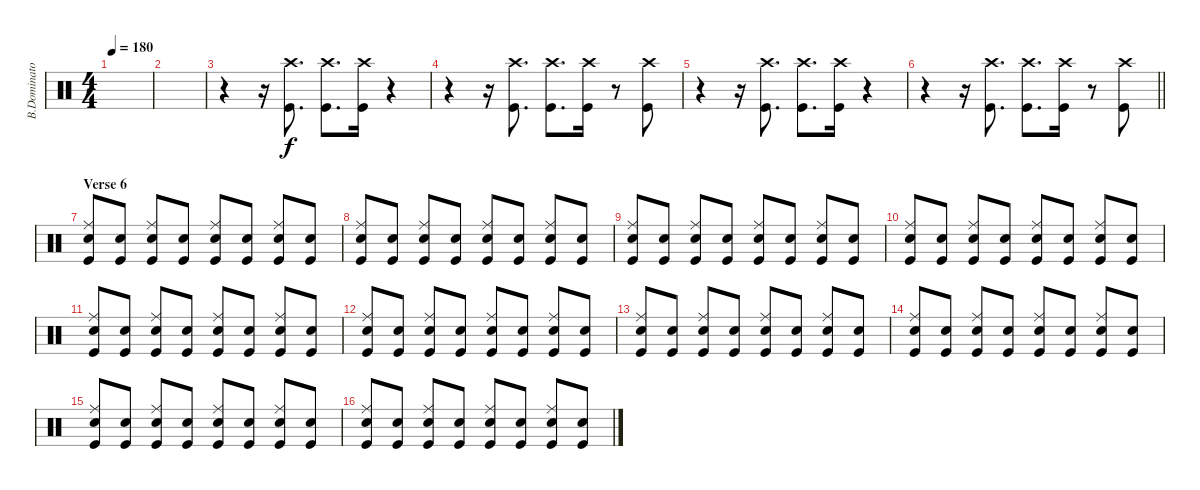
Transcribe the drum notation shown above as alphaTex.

\track ("B.Dominator" "B.Dominato") {instrument percussion}
\staff {score}
\articulation defaults
\ts (4 4)
\tempo 180
\clef neutral
\ks c
|
|
r.4 r.16 ("Crash high (hit)" "Kick (hit)").8{d} ("Crash high (hit)" "Kick (hit)").8{d} ("Crash high (hit)" "Kick (hit)").16 r.4 |
r.4 r.16 ("Crash high (hit)" "Kick (hit)").8{d} ("Crash high (hit)" "Kick (hit)").8{d} ("Crash high (hit)" "Kick (hit)").16 r.8 ("Crash high (hit)" "Kick (hit)").8 |
r.4 r.16 ("Crash high (hit)" "Kick (hit)").8{d} ("Crash high (hit)" "Kick (hit)").8{d} ("Crash high (hit)" "Kick (hit)").16 r.4 |
\barLineRight lightlight
r.4 r.16 ("Crash high (hit)" "Kick (hit)").8{d} ("Crash high (hit)" "Kick (hit)").8{d} ("Crash high (hit)" "Kick (hit)").16 r.8 ("Crash high (hit)" "Kick (hit)").8 |
\section ("" "Verse 6")
("Ride (middle)" "Snare (hit) 2" "Kick (hit)").8 ("Snare (hit) 2" "Kick (hit)").8 ("Ride (middle)" "Snare (hit) 2" "Kick (hit)").8 ("Snare (hit) 2" "Kick (hit)").8 ("Ride (middle)" "Snare (hit) 2" "Kick (hit)").8 ("Snare (hit) 2" "Kick (hit)").8 ("Ride (middle)" "Snare (hit) 2" "Kick (hit)").8 ("Snare (hit) 2" "Kick (hit)").8 |
("Ride (middle)" "Snare (hit) 2" "Kick (hit)").8 ("Snare (hit) 2" "Kick (hit)").8 ("Ride (middle)" "Snare (hit) 2" "Kick (hit)").8 ("Snare (hit) 2" "Kick (hit)").8 ("Ride (middle)" "Snare (hit) 2" "Kick (hit)").8 ("Snare (hit) 2" "Kick (hit)").8 ("Ride (middle)" "Snare (hit) 2" "Kick (hit)").8 ("Snare (hit) 2" "Kick (hit)").8 |
("Ride (middle)" "Snare (hit) 2" "Kick (hit)").8 ("Snare (hit) 2" "Kick (hit)").8 ("Ride (middle)" "Snare (hit) 2" "Kick (hit)").8 ("Snare (hit) 2" "Kick (hit)").8 ("Ride (middle)" "Snare (hit) 2" "Kick (hit)").8 ("Snare (hit) 2" "Kick (hit)").8 ("Ride (middle)" "Snare (hit) 2" "Kick (hit)").8 ("Snare (hit) 2" "Kick (hit)").8 |
("Ride (middle)" "Snare (hit) 2" "Kick (hit)").8 ("Snare (hit) 2" "Kick (hit)").8 ("Ride (middle)" "Snare (hit) 2" "Kick (hit)").8 ("Snare (hit) 2" "Kick (hit)").8 ("Ride (middle)" "Snare (hit) 2" "Kick (hit)").8 ("Snare (hit) 2" "Kick (hit)").8 ("Ride (middle)" "Snare (hit) 2" "Kick (hit)").8 ("Snare (hit) 2" "Kick (hit)").8 |
("Ride (middle)" "Snare (hit) 2" "Kick (hit)").8 ("Snare (hit) 2" "Kick (hit)").8 ("Ride (middle)" "Snare (hit) 2" "Kick (hit)").8 ("Snare (hit) 2" "Kick (hit)").8 ("Ride (middle)" "Snare (hit) 2" "Kick (hit)").8 ("Snare (hit) 2" "Kick (hit)").8 ("Ride (middle)" "Snare (hit) 2" "Kick (hit)").8 ("Snare (hit) 2" "Kick (hit)").8 |
("Ride (middle)" "Snare (hit) 2" "Kick (hit)").8 ("Snare (hit) 2" "Kick (hit)").8 ("Ride (middle)" "Snare (hit) 2" "Kick (hit)").8 ("Snare (hit) 2" "Kick (hit)").8 ("Ride (middle)" "Snare (hit) 2" "Kick (hit)").8 ("Snare (hit) 2" "Kick (hit)").8 ("Ride (middle)" "Snare (hit) 2" "Kick (hit)").8 ("Snare (hit) 2" "Kick (hit)").8 |
("Ride (middle)" "Snare (hit) 2" "Kick (hit)").8 ("Snare (hit) 2" "Kick (hit)").8 ("Ride (middle)" "Snare (hit) 2" "Kick (hit)").8 ("Snare (hit) 2" "Kick (hit)").8 ("Ride (middle)" "Snare (hit) 2" "Kick (hit)").8 ("Snare (hit) 2" "Kick (hit)").8 ("Ride (middle)" "Snare (hit) 2" "Kick (hit)").8 ("Snare (hit) 2" "Kick (hit)").8 |
("Ride (middle)" "Snare (hit) 2" "Kick (hit)").8 ("Snare (hit) 2" "Kick (hit)").8 ("Ride (middle)" "Snare (hit) 2" "Kick (hit)").8 ("Snare (hit) 2" "Kick (hit)").8 ("Ride (middle)" "Snare (hit) 2" "Kick (hit)").8 ("Snare (hit) 2" "Kick (hit)").8 ("Ride (middle)" "Snare (hit) 2" "Kick (hit)").8 ("Snare (hit) 2" "Kick (hit)").8 |
("Ride (middle)" "Snare (hit) 2" "Kick (hit)").8 ("Snare (hit) 2" "Kick (hit)").8 ("Ride (middle)" "Snare (hit) 2" "Kick (hit)").8 ("Snare (hit) 2" "Kick (hit)").8 ("Ride (middle)" "Snare (hit) 2" "Kick (hit)").8 ("Snare (hit) 2" "Kick (hit)").8 ("Ride (middle)" "Snare (hit) 2" "Kick (hit)").8 ("Snare (hit) 2" "Kick (hit)").8 |
("Ride (middle)" "Snare (hit) 2" "Kick (hit)").8 ("Snare (hit) 2" "Kick (hit)").8 ("Ride (middle)" "Snare (hit) 2" "Kick (hit)").8 ("Snare (hit) 2" "Kick (hit)").8 ("Ride (middle)" "Snare (hit) 2" "Kick (hit)").8 ("Snare (hit) 2" "Kick (hit)").8 ("Ride (middle)" "Snare (hit) 2" "Kick (hit)").8 ("Snare (hit) 2" "Kick (hit)").8
